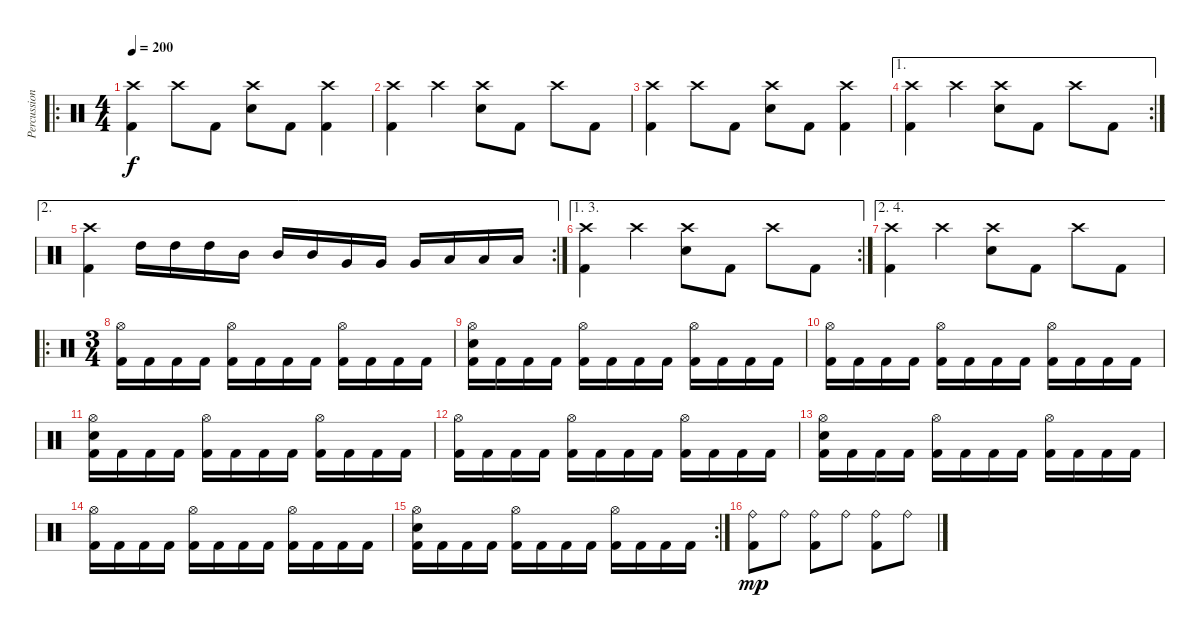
\track ("Percussion" "Percussion") {instrument percussion}
\staff {score}
\articulation defaults
\ro
\ts (4 4)
\tempo 200
\clef neutral
\ks c
("Crash high (hit)" "Kick (hit) 2").4{dy f} "Crash high (hit)".8 "Kick (hit) 2".8 ("Crash high (hit)" "Electric Snare (hit)").8 "Kick (hit) 2".8 ("Crash high (hit)" "Kick (hit) 2").4 |
("Crash high (hit)" "Kick (hit) 2").4 "Crash high (hit)".4 ("Crash high (hit)" "Electric Snare (hit)").8 "Kick (hit) 2".8 "Crash high (hit)".8 "Kick (hit) 2".8 |
("Crash high (hit)" "Kick (hit) 2").4 "Crash high (hit)".8 "Kick (hit) 2".8 ("Crash high (hit)" "Electric Snare (hit)").8 "Kick (hit) 2".8 ("Crash high (hit)" "Kick (hit) 2").4 |
\ae 1
\rc 2
("Crash high (hit)" "Kick (hit) 2").4 "Crash high (hit)".4 ("Crash high (hit)" "Electric Snare (hit)").8 "Kick (hit) 2".8 "Crash high (hit)".8 "Kick (hit) 2".8 |
\ae 2
\rc 2
("Crash high (hit)" "Kick (hit) 2").4 "High Tom (hit)".16 "High Tom (hit)".16 "High Tom (hit)".16 "Mid Tom (hit)".16 "Mid Tom (hit)".16 "Mid Tom (hit)".16 "Very Low Tom (hit)".16 "Very Low Tom (hit)".16 "Very Low Tom (hit)".16 "Low Floor Tom (hit)".16 "Low Floor Tom (hit)".16 "Low Floor Tom (hit)".16 |
\ae (1 3)
\rc 2
("Crash high (hit)" "Kick (hit) 2").4 "Crash high (hit)".4 ("Crash high (hit)" "Electric Snare (hit)").8 "Kick (hit) 2".8 "Crash high (hit)".8 "Kick (hit) 2".8 |
\ae (2 4)
("Crash high (hit)" "Kick (hit) 2").4 "Crash high (hit)".4 ("Crash high (hit)" "Electric Snare (hit)").8 "Kick (hit) 2".8 "Crash high (hit)".8 "Kick (hit) 2".8 |
\ro
\ts (3 4)
("Hi-Hat (open)" "Kick (hit) 2").16 "Kick (hit) 2".16 "Kick (hit) 2".16 "Kick (hit) 2".16 ("Hi-Hat (open)" "Kick (hit) 2").16 "Kick (hit) 2".16 "Kick (hit) 2".16 "Kick (hit) 2".16 ("Hi-Hat (open)" "Kick (hit) 2").16 "Kick (hit) 2".16 "Kick (hit) 2".16 "Kick (hit) 2".16 |
("Hi-Hat (open)" "Electric Snare (hit)" "Kick (hit) 2").16 "Kick (hit) 2".16 "Kick (hit) 2".16 "Kick (hit) 2".16 ("Hi-Hat (open)" "Kick (hit) 2").16 "Kick (hit) 2".16 "Kick (hit) 2".16 "Kick (hit) 2".16 ("Hi-Hat (open)" "Kick (hit) 2").16 "Kick (hit) 2".16 "Kick (hit) 2".16 "Kick (hit) 2".16 |
("Hi-Hat (open)" "Kick (hit) 2").16 "Kick (hit) 2".16 "Kick (hit) 2".16 "Kick (hit) 2".16 ("Hi-Hat (open)" "Kick (hit) 2").16 "Kick (hit) 2".16 "Kick (hit) 2".16 "Kick (hit) 2".16 ("Hi-Hat (open)" "Kick (hit) 2").16 "Kick (hit) 2".16 "Kick (hit) 2".16 "Kick (hit) 2".16 |
("Hi-Hat (open)" "Electric Snare (hit)" "Kick (hit) 2").16 "Kick (hit) 2".16 "Kick (hit) 2".16 "Kick (hit) 2".16 ("Hi-Hat (open)" "Kick (hit) 2").16 "Kick (hit) 2".16 "Kick (hit) 2".16 "Kick (hit) 2".16 ("Hi-Hat (open)" "Kick (hit) 2").16 "Kick (hit) 2".16 "Kick (hit) 2".16 "Kick (hit) 2".16 |
("Hi-Hat (open)" "Kick (hit) 2").16 "Kick (hit) 2".16 "Kick (hit) 2".16 "Kick (hit) 2".16 ("Hi-Hat (open)" "Kick (hit) 2").16 "Kick (hit) 2".16 "Kick (hit) 2".16 "Kick (hit) 2".16 ("Hi-Hat (open)" "Kick (hit) 2").16 "Kick (hit) 2".16 "Kick (hit) 2".16 "Kick (hit) 2".16 |
("Hi-Hat (open)" "Electric Snare (hit)" "Kick (hit) 2").16 "Kick (hit) 2".16 "Kick (hit) 2".16 "Kick (hit) 2".16 ("Hi-Hat (open)" "Kick (hit) 2").16 "Kick (hit) 2".16 "Kick (hit) 2".16 "Kick (hit) 2".16 ("Hi-Hat (open)" "Kick (hit) 2").16 "Kick (hit) 2".16 "Kick (hit) 2".16 "Kick (hit) 2".16 |
("Hi-Hat (open)" "Kick (hit) 2").16 "Kick (hit) 2".16 "Kick (hit) 2".16 "Kick (hit) 2".16 ("Hi-Hat (open)" "Kick (hit) 2").16 "Kick (hit) 2".16 "Kick (hit) 2".16 "Kick (hit) 2".16 ("Hi-Hat (open)" "Kick (hit) 2").16 "Kick (hit) 2".16 "Kick (hit) 2".16 "Kick (hit) 2".16 |
\rc 2
("Hi-Hat (open)" "Electric Snare (hit)" "Kick (hit) 2").16 "Kick (hit) 2".16 "Kick (hit) 2".16 "Kick (hit) 2".16 ("Hi-Hat (open)" "Kick (hit) 2").16 "Kick (hit) 2".16 "Kick (hit) 2".16 "Kick (hit) 2".16 ("Hi-Hat (open)" "Kick (hit) 2").16 "Kick (hit) 2".16 "Kick (hit) 2".16 "Kick (hit) 2".16 |
("Ride (bell)" "Kick (hit) 2").8{dy mp} "Ride (bell)".8 ("Ride (bell)" "Kick (hit) 2").8 "Ride (bell)".8 ("Ride (bell)" "Kick (hit) 2").8 "Ride (bell)".8
